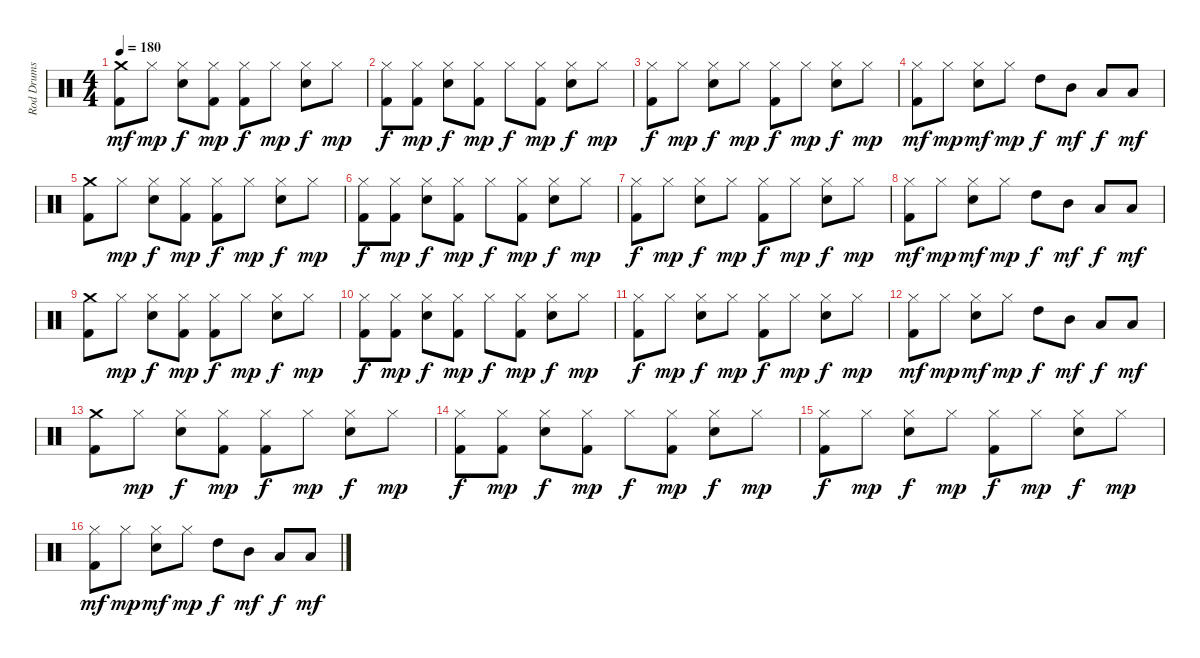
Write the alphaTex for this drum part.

\track ("Rod Drums" "Rod Drums") {instrument percussion}
\staff {score}
\articulation defaults
\ts (4 4)
\tempo 180
\clef neutral
\ks c
("Crash medium (hit)" "Kick (hit) 2").8{dy mf} "Hi-Hat (closed)".8{dy mp} ("Hi-Hat (closed)" "Snare (hit) 2").8{dy f} ("Hi-Hat (closed)" "Kick (hit) 2").8{dy mp} ("Hi-Hat (closed)" "Kick (hit) 2").8{dy f} "Hi-Hat (closed)".8{dy mp} ("Hi-Hat (closed)" "Snare (hit) 2").8{dy f} "Hi-Hat (closed)".8{dy mp} |
("Hi-Hat (closed)" "Kick (hit) 2").8{dy f} ("Hi-Hat (closed)" "Kick (hit) 2").8{dy mp} ("Hi-Hat (closed)" "Snare (hit) 2").8{dy f} ("Hi-Hat (closed)" "Kick (hit) 2").8{dy mp} "Hi-Hat (closed)".8{dy f} ("Hi-Hat (closed)" "Kick (hit) 2").8{dy mp} ("Hi-Hat (closed)" "Snare (hit) 2").8{dy f} "Hi-Hat (closed)".8{dy mp} |
("Hi-Hat (closed)" "Kick (hit) 2").8{dy f} "Hi-Hat (closed)".8{dy mp} ("Hi-Hat (closed)" "Snare (hit) 2").8{dy f} "Hi-Hat (closed)".8{dy mp} ("Hi-Hat (closed)" "Kick (hit) 2").8{dy f} "Hi-Hat (closed)".8{dy mp} ("Hi-Hat (closed)" "Snare (hit) 2").8{dy f} "Hi-Hat (closed)".8{dy mp} |
("Hi-Hat (closed)" "Kick (hit) 2").8{dy mf} "Hi-Hat (closed)".8{dy mp} ("Hi-Hat (closed)" "Snare (hit) 2").8{dy mf} "Hi-Hat (closed)".8{dy mp} "High Tom (hit)".8{dy f} "Mid Tom (hit)".8{dy mf} "Low Tom (hit)".8{dy f} "Low Tom (hit)".8{dy mf} |
("Crash medium (hit)" "Kick (hit) 2").8 "Hi-Hat (closed)".8{dy mp} ("Hi-Hat (closed)" "Snare (hit) 2").8{dy f} ("Hi-Hat (closed)" "Kick (hit) 2").8{dy mp} ("Hi-Hat (closed)" "Kick (hit) 2").8{dy f} "Hi-Hat (closed)".8{dy mp} ("Hi-Hat (closed)" "Snare (hit) 2").8{dy f} "Hi-Hat (closed)".8{dy mp} |
("Hi-Hat (closed)" "Kick (hit) 2").8{dy f} ("Hi-Hat (closed)" "Kick (hit) 2").8{dy mp} ("Hi-Hat (closed)" "Snare (hit) 2").8{dy f} ("Hi-Hat (closed)" "Kick (hit) 2").8{dy mp} "Hi-Hat (closed)".8{dy f} ("Hi-Hat (closed)" "Kick (hit) 2").8{dy mp} ("Hi-Hat (closed)" "Snare (hit) 2").8{dy f} "Hi-Hat (closed)".8{dy mp} |
("Hi-Hat (closed)" "Kick (hit) 2").8{dy f} "Hi-Hat (closed)".8{dy mp} ("Hi-Hat (closed)" "Snare (hit) 2").8{dy f} "Hi-Hat (closed)".8{dy mp} ("Hi-Hat (closed)" "Kick (hit) 2").8{dy f} "Hi-Hat (closed)".8{dy mp} ("Hi-Hat (closed)" "Snare (hit) 2").8{dy f} "Hi-Hat (closed)".8{dy mp} |
("Hi-Hat (closed)" "Kick (hit) 2").8{dy mf} "Hi-Hat (closed)".8{dy mp} ("Hi-Hat (closed)" "Snare (hit) 2").8{dy mf} "Hi-Hat (closed)".8{dy mp} "High Tom (hit)".8{dy f} "Mid Tom (hit)".8{dy mf} "Low Tom (hit)".8{dy f} "Low Tom (hit)".8{dy mf} |
("Crash medium (hit)" "Kick (hit) 2").8 "Hi-Hat (closed)".8{dy mp} ("Hi-Hat (closed)" "Snare (hit) 2").8{dy f} ("Hi-Hat (closed)" "Kick (hit) 2").8{dy mp} ("Hi-Hat (closed)" "Kick (hit) 2").8{dy f} "Hi-Hat (closed)".8{dy mp} ("Hi-Hat (closed)" "Snare (hit) 2").8{dy f} "Hi-Hat (closed)".8{dy mp} |
("Hi-Hat (closed)" "Kick (hit) 2").8{dy f} ("Hi-Hat (closed)" "Kick (hit) 2").8{dy mp} ("Hi-Hat (closed)" "Snare (hit) 2").8{dy f} ("Hi-Hat (closed)" "Kick (hit) 2").8{dy mp} "Hi-Hat (closed)".8{dy f} ("Hi-Hat (closed)" "Kick (hit) 2").8{dy mp} ("Hi-Hat (closed)" "Snare (hit) 2").8{dy f} "Hi-Hat (closed)".8{dy mp} |
("Hi-Hat (closed)" "Kick (hit) 2").8{dy f} "Hi-Hat (closed)".8{dy mp} ("Hi-Hat (closed)" "Snare (hit) 2").8{dy f} "Hi-Hat (closed)".8{dy mp} ("Hi-Hat (closed)" "Kick (hit) 2").8{dy f} "Hi-Hat (closed)".8{dy mp} ("Hi-Hat (closed)" "Snare (hit) 2").8{dy f} "Hi-Hat (closed)".8{dy mp} |
("Hi-Hat (closed)" "Kick (hit) 2").8{dy mf} "Hi-Hat (closed)".8{dy mp} ("Hi-Hat (closed)" "Snare (hit) 2").8{dy mf} "Hi-Hat (closed)".8{dy mp} "High Tom (hit)".8{dy f} "Mid Tom (hit)".8{dy mf} "Low Tom (hit)".8{dy f} "Low Tom (hit)".8{dy mf} |
("Crash medium (hit)" "Kick (hit) 2").8 "Hi-Hat (closed)".8{dy mp} ("Hi-Hat (closed)" "Snare (hit) 2").8{dy f} ("Hi-Hat (closed)" "Kick (hit) 2").8{dy mp} ("Hi-Hat (closed)" "Kick (hit) 2").8{dy f} "Hi-Hat (closed)".8{dy mp} ("Hi-Hat (closed)" "Snare (hit) 2").8{dy f} "Hi-Hat (closed)".8{dy mp} |
("Hi-Hat (closed)" "Kick (hit) 2").8{dy f} ("Hi-Hat (closed)" "Kick (hit) 2").8{dy mp} ("Hi-Hat (closed)" "Snare (hit) 2").8{dy f} ("Hi-Hat (closed)" "Kick (hit) 2").8{dy mp} "Hi-Hat (closed)".8{dy f} ("Hi-Hat (closed)" "Kick (hit) 2").8{dy mp} ("Hi-Hat (closed)" "Snare (hit) 2").8{dy f} "Hi-Hat (closed)".8{dy mp} |
("Hi-Hat (closed)" "Kick (hit) 2").8{dy f} "Hi-Hat (closed)".8{dy mp} ("Hi-Hat (closed)" "Snare (hit) 2").8{dy f} "Hi-Hat (closed)".8{dy mp} ("Hi-Hat (closed)" "Kick (hit) 2").8{dy f} "Hi-Hat (closed)".8{dy mp} ("Hi-Hat (closed)" "Snare (hit) 2").8{dy f} "Hi-Hat (closed)".8{dy mp} |
("Hi-Hat (closed)" "Kick (hit) 2").8{dy mf} "Hi-Hat (closed)".8{dy mp} ("Hi-Hat (closed)" "Snare (hit) 2").8{dy mf} "Hi-Hat (closed)".8{dy mp} "High Tom (hit)".8{dy f} "Mid Tom (hit)".8{dy mf} "Low Tom (hit)".8{dy f} "Low Tom (hit)".8{dy mf}
